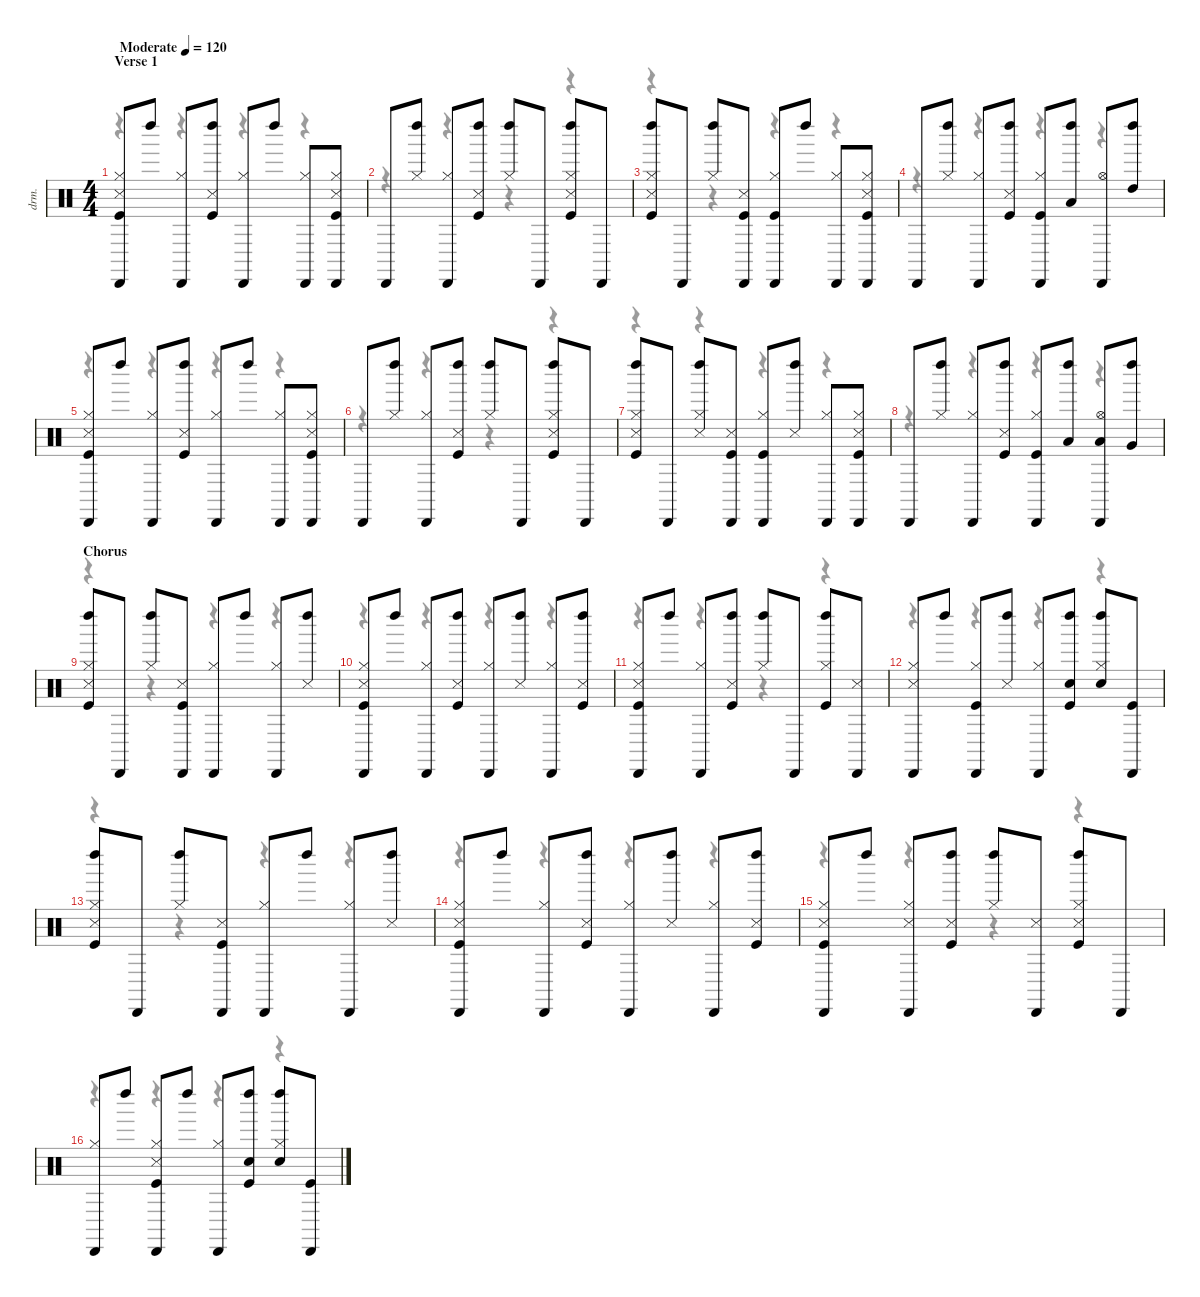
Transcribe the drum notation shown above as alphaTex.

\defaultSystemsLayout 4
\hideDynamics
\bracketExtendMode nobrackets
\track ("Drums" "drm.") {instrument percussion}
\staff {score}
\articulation defaults
\voice
\ts (4 4)
\beaming (8 2 2 2 2)
\section ("" "Verse 1")
\tempo (120 "Moderate")
\clef neutral
\ks c
("Hi-Hat (closed)" "Snare (side stick) 3" "Kick (hit)" "Cabasa (hit)").8{dy ff} "Left Maraca (hit)".8{dy f} ("Hi-Hat (closed)" "Cabasa (hit)").8{dy ff} ("Kick (hit)" "Left Maraca (hit)" "Snare (side stick) 3").8{dy f} ("Hi-Hat (closed)" "Cabasa (hit)").8{dy ff} "Left Maraca (hit)".8{dy f} ("Hi-Hat (closed)" "Cabasa (hit)").8{dy ff} ("Hi-Hat (closed)" "Cabasa (hit)" "Snare (side stick) 3" "Kick (hit)").8 |
"Cabasa (hit)".8 ("Left Maraca (hit)" "Hi-Hat (closed)").8 ("Hi-Hat (closed)" "Cabasa (hit)").8 ("Left Maraca (hit)" "Snare (side stick) 3" "Kick (hit)").8 ("Hi-Hat (closed)" "Left Maraca (hit)").8 "Cabasa (hit)".8{dy f} ("Hi-Hat (closed)" "Left Maraca (hit)" "Kick (hit)" "Snare (side stick) 3").8{dy ff} "Cabasa (hit)".8 |
("Hi-Hat (closed)" "Left Maraca (hit)" "Kick (hit)" "Snare (side stick) 3").8 "Cabasa (hit)".8{dy f} ("Left Maraca (hit)" "Hi-Hat (closed)").8 ("Cabasa (hit)" "Snare (side stick) 3" "Kick (hit)").8 ("Cabasa (hit)" "Kick (hit)" "Hi-Hat (closed)").8 "Left Maraca (hit)".8 ("Hi-Hat (closed)" "Cabasa (hit)").8{dy ff} ("Kick (hit)" "Hi-Hat (closed)" "Cabasa (hit)" "Snare (side stick) 3").8 |
"Cabasa (hit)".8 ("Left Maraca (hit)" "Hi-Hat (closed)").8 ("Cabasa (hit)" "Hi-Hat (closed)").8 ("Snare (side stick) 3" "Kick (hit)" "Left Maraca (hit)").8 ("Cabasa (hit)" "Kick (hit)" "Hi-Hat (closed)").8 ("Low Tom (hit)" "Left Maraca (hit)").8 ("Cabasa (hit)" "Hi-Hat (open)").8 ("High Tom (hit)" "Left Maraca (hit)").8 |
("Hi-Hat (closed)" "Snare (side stick) 3" "Kick (hit)" "Cabasa (hit)").8 "Left Maraca (hit)".8{dy f} ("Hi-Hat (closed)" "Cabasa (hit)").8{dy ff} ("Kick (hit)" "Left Maraca (hit)" "Snare (side stick) 3").8{dy f} ("Hi-Hat (closed)" "Cabasa (hit)").8{dy ff} "Left Maraca (hit)".8{dy f} ("Hi-Hat (closed)" "Cabasa (hit)").8{dy ff} ("Hi-Hat (closed)" "Cabasa (hit)" "Snare (side stick) 3" "Kick (hit)").8 |
"Cabasa (hit)".8 ("Left Maraca (hit)" "Hi-Hat (closed)").8 ("Hi-Hat (closed)" "Cabasa (hit)").8 ("Left Maraca (hit)" "Snare (side stick) 3" "Kick (hit)").8 ("Hi-Hat (closed)" "Left Maraca (hit)").8 "Cabasa (hit)".8{dy f} ("Hi-Hat (closed)" "Left Maraca (hit)" "Kick (hit)" "Snare (side stick) 3").8{dy ff} "Cabasa (hit)".8 |
("Hi-Hat (closed)" "Left Maraca (hit)" "Kick (hit)" "Snare (side stick) 3").8 "Cabasa (hit)".8{dy f} ("Left Maraca (hit)" "Hi-Hat (closed)" "Snare (side stick) 3").8 ("Cabasa (hit)" "Snare (side stick) 3" "Kick (hit)").8 ("Cabasa (hit)" "Kick (hit)" "Hi-Hat (closed)").8 ("Left Maraca (hit)" "Snare (side stick) 3").8 ("Hi-Hat (closed)" "Cabasa (hit)").8{dy ff} ("Kick (hit)" "Hi-Hat (closed)" "Cabasa (hit)" "Snare (side stick) 3").8 |
"Cabasa (hit)".8 ("Left Maraca (hit)" "Hi-Hat (closed)").8 ("Cabasa (hit)" "Hi-Hat (closed)").8 ("Snare (side stick) 3" "Kick (hit)" "Left Maraca (hit)").8 ("Cabasa (hit)" "Kick (hit)" "Hi-Hat (closed)").8 ("Low Tom (hit)" "Left Maraca (hit)").8 ("Cabasa (hit)" "Hi-Hat (open)" "Low Tom (hit)").8 ("Very Low Tom (hit)" "Left Maraca (hit)").8{dy f} |
\section ("" "Chorus")
("Hi-Hat (closed)" "Left Maraca (hit)" "Kick (hit)" "Snare (side stick) 3").8{dy ff} "Cabasa (hit)".8{dy f} ("Left Maraca (hit)" "Hi-Hat (closed)").8 ("Cabasa (hit)" "Snare (side stick) 3" "Kick (hit)").8 ("Cabasa (hit)" "Hi-Hat (closed)").8 "Left Maraca (hit)".8 ("Hi-Hat (closed)" "Cabasa (hit)").8{dy ff} ("Left Maraca (hit)" "Snare (side stick) 3").8 |
("Hi-Hat (closed)" "Snare (side stick) 3" "Kick (hit)" "Cabasa (hit)").8 "Left Maraca (hit)".8{dy f} ("Hi-Hat (closed)" "Cabasa (hit)").8{dy ff} ("Kick (hit)" "Left Maraca (hit)" "Snare (side stick) 3").8{dy f} ("Hi-Hat (closed)" "Cabasa (hit)").8{dy ff} ("Left Maraca (hit)" "Snare (side stick) 3").8{dy f} ("Hi-Hat (closed)" "Cabasa (hit)").8{dy ff} ("Left Maraca (hit)" "Kick (hit)" "Snare (side stick) 3").8 |
("Hi-Hat (closed)" "Cabasa (hit)" "Snare (side stick) 3" "Kick (hit)").8 "Left Maraca (hit)".8{dy f} ("Hi-Hat (closed)" "Cabasa (hit)").8{dy ff} ("Left Maraca (hit)" "Snare (side stick) 3" "Kick (hit)").8 ("Hi-Hat (closed)" "Left Maraca (hit)").8 "Cabasa (hit)".8{dy f} ("Hi-Hat (closed)" "Left Maraca (hit)" "Kick (hit)").8{dy ff} ("Cabasa (hit)" "Snare (side stick) 3").8 |
("Snare (side stick) 3" "Hi-Hat (closed)" "Cabasa (hit)").8 "Left Maraca (hit)".8 ("Kick (hit)" "Cabasa (hit)" "Hi-Hat (closed)").8 ("Left Maraca (hit)" "Snare (side stick) 3").8 ("Hi-Hat (closed)" "Cabasa (hit)").8{dy fff} ("Snare (hit) 2" "Left Maraca (hit)" "Kick (hit)").8{dy mf} ("Snare (hit) 2" "Hi-Hat (closed)" "Left Maraca (hit)").8 ("Cabasa (hit)" "Kick (hit)").8{dy ff} |
("Hi-Hat (closed)" "Left Maraca (hit)" "Kick (hit)" "Snare (side stick) 3").8 "Cabasa (hit)".8{dy f} ("Left Maraca (hit)" "Hi-Hat (closed)").8 ("Cabasa (hit)" "Snare (side stick) 3" "Kick (hit)").8 ("Cabasa (hit)" "Hi-Hat (closed)").8 "Left Maraca (hit)".8 ("Hi-Hat (closed)" "Cabasa (hit)").8{dy ff} ("Left Maraca (hit)" "Snare (side stick) 3").8 |
("Hi-Hat (closed)" "Snare (side stick) 3" "Kick (hit)" "Cabasa (hit)").8 "Left Maraca (hit)".8{dy f} ("Hi-Hat (closed)" "Cabasa (hit)").8{dy ff} ("Kick (hit)" "Left Maraca (hit)" "Snare (side stick) 3").8{dy f} ("Hi-Hat (closed)" "Cabasa (hit)").8{dy ff} ("Left Maraca (hit)" "Snare (side stick) 3").8{dy f} ("Hi-Hat (closed)" "Cabasa (hit)").8{dy ff} ("Left Maraca (hit)" "Kick (hit)" "Snare (side stick) 3").8 |
("Hi-Hat (closed)" "Cabasa (hit)" "Snare (side stick) 3" "Kick (hit)").8 "Left Maraca (hit)".8{dy f} ("Hi-Hat (closed)" "Cabasa (hit)" "Snare (side stick) 3").8{dy ff} ("Left Maraca (hit)" "Snare (side stick) 3" "Kick (hit)").8 ("Hi-Hat (closed)" "Left Maraca (hit)").8 ("Cabasa (hit)" "Snare (side stick) 3").8{dy f} ("Hi-Hat (closed)" "Left Maraca (hit)" "Kick (hit)" "Snare (side stick) 3").8{dy ff} "Cabasa (hit)".8 |
("Hi-Hat (closed)" "Cabasa (hit)").8 "Left Maraca (hit)".8 ("Kick (hit)" "Cabasa (hit)" "Hi-Hat (closed)" "Snare (side stick) 3").8 "Left Maraca (hit)".8 ("Hi-Hat (closed)" "Cabasa (hit)").8{dy fff} ("Snare (hit) 2" "Left Maraca (hit)" "Kick (hit)").8{dy mf} ("Snare (hit) 2" "Hi-Hat (closed)" "Left Maraca (hit)").8 ("Cabasa (hit)" "Kick (hit)").8{dy ff}
\voice
\clef neutral
\ottava regular
\simile none
\ks c
r.4{dy mf} r.4 r.4 r.4 |
r.4 r.4 r.4 r.4 |
r.4 r.4 r.4 r.4 |
r.4 r.4 r.4 r.4 |
r.4 r.4 r.4 r.4 |
r.4 r.4 r.4 r.4 |
r.4 r.4 r.4 r.4 |
r.4 r.4 r.4 r.4 |
r.4 r.4 r.4 r.4 |
r.4 r.4 r.4 r.4 |
r.4 r.4 r.4 r.4 |
r.4 r.4 r.4 r.4 |
r.4 r.4 r.4 r.4 |
r.4 r.4 r.4 r.4 |
r.4 r.4 r.4 r.4 |
r.4 r.4 r.4 r.4
